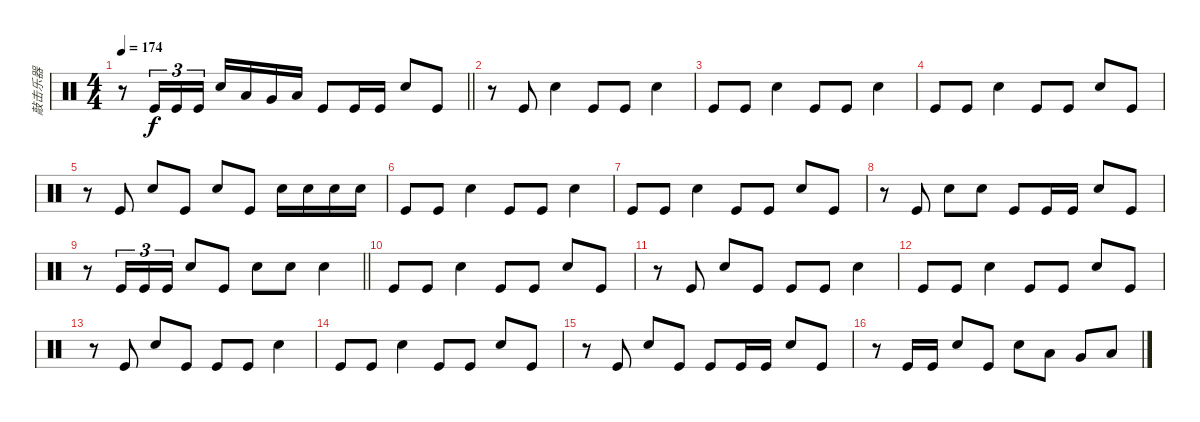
\track ("敲击乐器" "敲击乐器") {instrument percussion}
\staff {score}
\articulation defaults
\ts (4 4)
\tempo 174
\clef neutral
\barLineRight lightlight
\ks c
r.8{dy f} "Kick (hit)".16{tu (3 2)} "Kick (hit)".16{tu (3 2)} "Kick (hit)".16{tu (3 2)} "Snare (hit) 2".16 "Low Tom (hit)".16 "Very Low Tom (hit)".16 "Low Floor Tom (hit)".16 "Kick (hit)".8 "Kick (hit)".16 "Kick (hit)".16 "Snare (hit) 2".8 "Kick (hit)".8 |
r.8 "Kick (hit)".8 "Snare (hit) 2".4 "Kick (hit)".8 "Kick (hit)".8 "Snare (hit) 2".4 |
"Kick (hit)".8 "Kick (hit)".8 "Snare (hit) 2".4 "Kick (hit)".8 "Kick (hit)".8 "Snare (hit) 2".4 |
"Kick (hit)".8 "Kick (hit)".8 "Snare (hit) 2".4 "Kick (hit)".8 "Kick (hit)".8 "Snare (hit) 2".8 "Kick (hit)".8 |
r.8 "Kick (hit)".8 "Snare (hit) 2".8 "Kick (hit)".8 "Snare (hit) 2".8 "Kick (hit)".8 "Snare (hit) 2".16 "Snare (hit) 2".16 "Snare (hit) 2".16 "Snare (hit) 2".16 |
"Kick (hit)".8 "Kick (hit)".8 "Snare (hit) 2".4 "Kick (hit)".8 "Kick (hit)".8 "Snare (hit) 2".4 |
"Kick (hit)".8 "Kick (hit)".8 "Snare (hit) 2".4 "Kick (hit)".8 "Kick (hit)".8 "Snare (hit) 2".8 "Kick (hit)".8 |
r.8 "Kick (hit)".8 "Snare (hit) 2".8 "Snare (hit) 2".8 "Kick (hit)".8 "Kick (hit)".16 "Kick (hit)".16 "Snare (hit) 2".8 "Kick (hit)".8 |
\barLineRight lightlight
r.8 "Kick (hit)".16{tu (3 2)} "Kick (hit)".16{tu (3 2)} "Kick (hit)".16{tu (3 2)} "Snare (hit) 2".8 "Kick (hit)".8 "Snare (hit) 2".8 "Snare (hit) 2".8 "Snare (hit) 2".4 |
"Kick (hit)".8 "Kick (hit)".8 "Snare (hit) 2".4 "Kick (hit)".8 "Kick (hit)".8 "Snare (hit) 2".8 "Kick (hit)".8 |
r.8 "Kick (hit)".8 "Snare (hit) 2".8 "Kick (hit)".8 "Kick (hit)".8 "Kick (hit)".8 "Snare (hit) 2".4 |
"Kick (hit)".8 "Kick (hit)".8 "Snare (hit) 2".4 "Kick (hit)".8 "Kick (hit)".8 "Snare (hit) 2".8 "Kick (hit)".8 |
r.8 "Kick (hit)".8 "Snare (hit) 2".8 "Kick (hit)".8 "Kick (hit)".8 "Kick (hit)".8 "Snare (hit) 2".4 |
"Kick (hit)".8 "Kick (hit)".8 "Snare (hit) 2".4 "Kick (hit)".8 "Kick (hit)".8 "Snare (hit) 2".8 "Kick (hit)".8 |
r.8 "Kick (hit)".8 "Snare (hit) 2".8 "Kick (hit)".8 "Kick (hit)".8 "Kick (hit)".16 "Kick (hit)".16 "Snare (hit) 2".8 "Kick (hit)".8 |
r.8 "Kick (hit)".16 "Kick (hit)".16 "Snare (hit) 2".8 "Kick (hit)".8 "Snare (hit) 2".8 "Low Tom (hit)".8 "Very Low Tom (hit)".8 "Low Floor Tom (hit)".8
